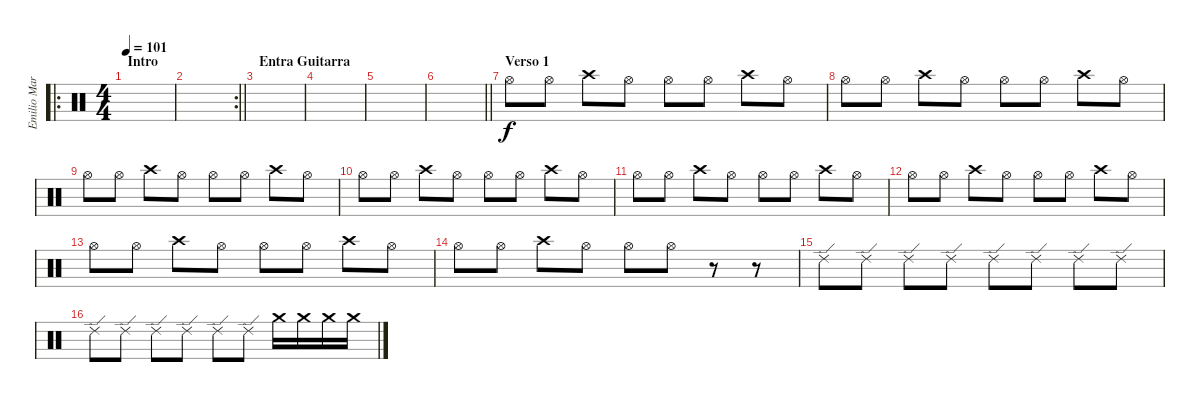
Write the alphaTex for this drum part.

\track ("Emilio Marquez 2" "Emilio Mar") {instrument percussion}
\staff {score}
\articulation defaults
\ro
\ts (4 4)
\section ("" "Intro")
\tempo 101
\clef neutral
\ks c
|
\rc 2
\barLineRight lightlight
|
\section ("" "Entra Guitarra ")
|
|
|
\barLineRight lightlight
|
\section ("" "Verso 1")
"Hi-Hat (open)".8 "Hi-Hat (open)".8 "Crash high (hit)".8 "Hi-Hat (open)".8 "Hi-Hat (open)".8 "Hi-Hat (open)".8 "Crash high (hit)".8 "Hi-Hat (open)".8 |
"Hi-Hat (open)".8 "Hi-Hat (open)".8 "Crash high (hit)".8 "Hi-Hat (open)".8 "Hi-Hat (open)".8 "Hi-Hat (open)".8 "Crash high (hit)".8 "Hi-Hat (open)".8 |
"Hi-Hat (open)".8 "Hi-Hat (open)".8 "Crash high (hit)".8 "Hi-Hat (open)".8 "Hi-Hat (open)".8 "Hi-Hat (open)".8 "Crash high (hit)".8 "Hi-Hat (open)".8 |
"Hi-Hat (open)".8 "Hi-Hat (open)".8 "Crash high (hit)".8 "Hi-Hat (open)".8 "Hi-Hat (open)".8 "Hi-Hat (open)".8 "Crash high (hit)".8 "Hi-Hat (open)".8 |
"Hi-Hat (open)".8 "Hi-Hat (open)".8 "Crash high (hit)".8 "Hi-Hat (open)".8 "Hi-Hat (open)".8 "Hi-Hat (open)".8 "Crash high (hit)".8 "Hi-Hat (open)".8 |
"Hi-Hat (open)".8 "Hi-Hat (open)".8 "Crash high (hit)".8 "Hi-Hat (open)".8 "Hi-Hat (open)".8 "Hi-Hat (open)".8 "Crash high (hit)".8 "Hi-Hat (open)".8 |
"Hi-Hat (open)".8 "Hi-Hat (open)".8 "Crash high (hit)".8 "Hi-Hat (open)".8 "Hi-Hat (open)".8 "Hi-Hat (open)".8 "Crash high (hit)".8 "Hi-Hat (open)".8 |
"Hi-Hat (open)".8 "Hi-Hat (open)".8 "Crash high (hit)".8 "Hi-Hat (open)".8 "Hi-Hat (open)".8 "Hi-Hat (open)".8 r.8 r.8 |
"Ride (edge) 2".8 "Ride (edge) 2".8 "Ride (edge) 2".8 "Ride (edge) 2".8 "Ride (edge) 2".8 "Ride (edge) 2".8 "Ride (edge) 2".8 "Ride (edge) 2".8 |
"Ride (edge) 2".8 "Ride (edge) 2".8 "Ride (edge) 2".8 "Ride (edge) 2".8 "Ride (edge) 2".8 "Ride (edge) 2".8 "Crash medium (hit)".16{dy f} "Crash medium (hit)".16 "Crash medium (hit)".16 "Crash medium (hit)".16
